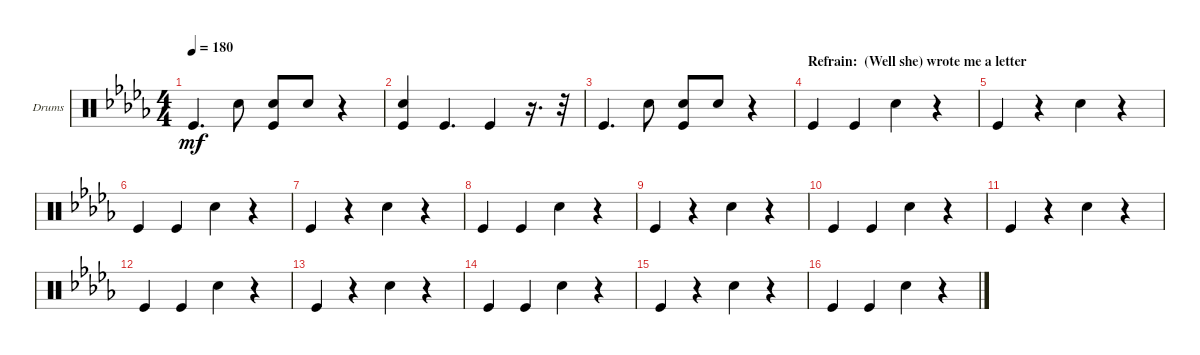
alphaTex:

\bracketExtendMode groupsimilarinstruments
\firstSystemTrackNameOrientation horizontal
\otherSystemsTrackNameOrientation horizontal
\track ("Drums" "Drums") {instrument percussion}
\staff {score}
\articulation defaults
\ts (4 4)
\tempo 180
\clef neutral
\ks bbminor "Kick (hit)".4{d dy mf} "Snare (hit) 2".8
("Kick (hit)" "Snare (hit) 2").8 "Snare (hit) 2".8 r.4 |
("Snare (hit) 2" "Kick (hit)").4 "Kick (hit)".4{d} "Kick (hit)".4 r.16{d} r.32 |
"Kick (hit)".4{d} "Snare (hit) 2".8 ("Kick (hit)" "Snare (hit) 2").8 "Snare (hit) 2".8 r.4 |
\section ("" "Refrain:  (Well she) wrote me a letter")
"Kick (hit)".4 "Kick (hit)".4 "Snare (hit) 2".4 r.4 |
"Kick (hit)".4 r.4 "Snare (hit) 2".4 r.4 |
"Kick (hit)".4 "Kick (hit)".4 "Snare (hit) 2".4 r.4 |
"Kick (hit)".4 r.4 "Snare (hit) 2".4 r.4 |
"Kick (hit)".4 "Kick (hit)".4 "Snare (hit) 2".4 r.4 |
"Kick (hit)".4 r.4 "Snare (hit) 2".4 r.4 |
"Kick (hit)".4 "Kick (hit)".4 "Snare (hit) 2".4 r.4 |
"Kick (hit)".4 r.4 "Snare (hit) 2".4 r.4 |
"Kick (hit)".4 "Kick (hit)".4 "Snare (hit) 2".4 r.4 |
"Kick (hit)".4 r.4 "Snare (hit) 2".4 r.4 |
"Kick (hit)".4 "Kick (hit)".4 "Snare (hit) 2".4 r.4 |
"Kick (hit)".4 r.4 "Snare (hit) 2".4 r.4 |
"Kick (hit)".4 "Kick (hit)".4 "Snare (hit) 2".4 r.4
